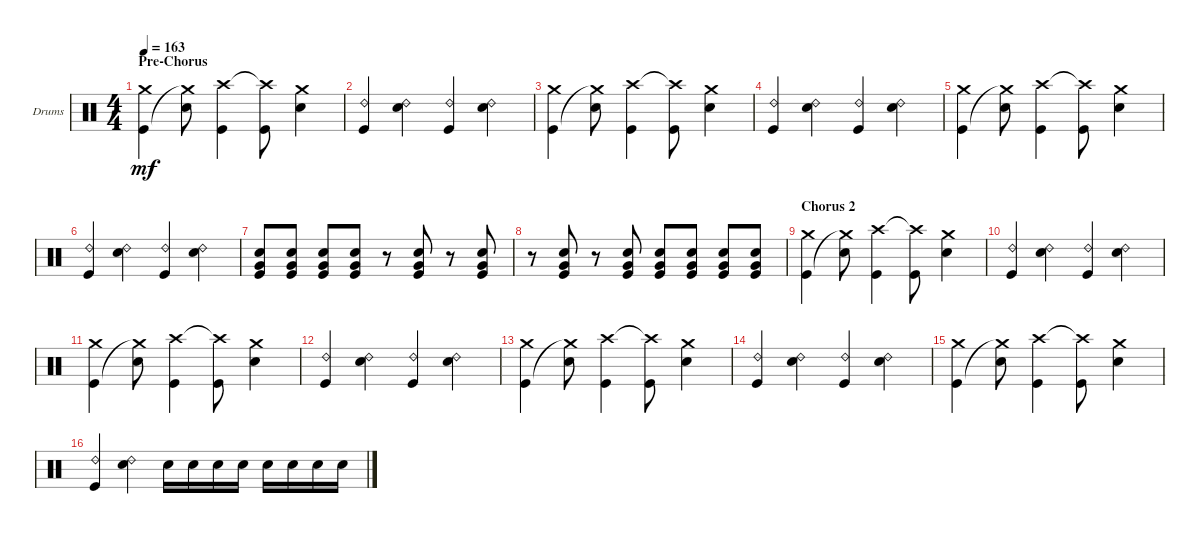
\bracketExtendMode groupsimilarinstruments
\firstSystemTrackNameOrientation horizontal
\otherSystemsTrackNameOrientation horizontal
\track ("Drums" "Drums") {instrument percussion}
\staff {score}
\articulation defaults
\ts (4 4)
\section ("" "Pre-Chorus")
\tempo 163
\clef neutral
\scale
0.333333
\ks c
("Crash medium (hit)" "Kick (hit)").4{dy mf} ("Snare (hit) 2" "Crash medium (hit)"{t}).8 ("Kick (hit)" "Crash high (hit)").4 ("Kick (hit)" "Crash high (hit)"{t}).8 ("Snare (hit) 2" "Crash medium (hit)").4 |
\scale
0.333333 ("Ride (bell) 2" "Kick (hit)").4 ("Ride (bell) 2" "Snare (hit) 2").4 ("Ride (bell) 2" "Kick (hit)").4 ("Ride (bell) 2" "Snare (hit) 2").4 |
\scale
0.333333 ("Crash medium (hit)" "Kick (hit)").4 ("Snare (hit) 2" "Crash medium (hit)"{t}).8 ("Kick (hit)" "Crash high (hit)").4 ("Kick (hit)" "Crash high (hit)"{t}).8 ("Snare (hit) 2" "Crash medium (hit)").4 |
\scale
0.333333 ("Ride (bell) 2" "Kick (hit)").4 ("Ride (bell) 2" "Snare (hit) 2").4 ("Ride (bell) 2" "Kick (hit)").4 ("Ride (bell) 2" "Snare (hit) 2").4 |
\scale
0.333333 ("Crash medium (hit)" "Kick (hit)").4 ("Snare (hit) 2" "Crash medium (hit)"{t}).8 ("Kick (hit)" "Crash high (hit)").4 ("Kick (hit)" "Crash high (hit)"{t}).8 ("Snare (hit) 2" "Crash medium (hit)").4 |
\scale
0.333333 ("Ride (bell) 2" "Kick (hit)").4 ("Ride (bell) 2" "Snare (hit) 2").4 ("Ride (bell) 2" "Kick (hit)").4 ("Ride (bell) 2" "Snare (hit) 2").4 |
\scale
0.333333 ("Kick (hit)" "Snare (hit) 2" "Very Low Tom (hit)").8 ("Kick (hit)" "Snare (hit) 2" "Very Low Tom (hit)").8 ("Kick (hit)" "Snare (hit) 2" "Very Low Tom (hit)").8 ("Kick (hit)" "Snare (hit) 2" "Very Low Tom (hit)").8 r.8 ("Kick (hit)" "Snare (hit) 2" "Very Low Tom (hit)").8 r.8 ("Kick (hit)" "Snare (hit) 2" "Very Low Tom (hit)").8 |
\scale
0.333333 r.8 ("Kick (hit)" "Snare (hit) 2" "Very Low Tom (hit)").8 r.8 ("Kick (hit)" "Snare (hit) 2" "Very Low Tom (hit)").8 ("Kick (hit)" "Snare (hit) 2" "Very Low Tom (hit)").8 ("Kick (hit)" "Snare (hit) 2" "Very Low Tom (hit)").8 ("Kick (hit)" "Snare (hit) 2" "Very Low Tom (hit)").8 ("Kick (hit)" "Snare (hit) 2" "Very Low Tom (hit)").8 |
\section ("" "Chorus 2")
\scale
0.333333 ("Crash medium (hit)" "Kick (hit)").4 ("Snare (hit) 2" "Crash medium (hit)"{t}).8 ("Kick (hit)" "Crash high (hit)").4 ("Kick (hit)" "Crash high (hit)"{t}).8 ("Snare (hit) 2" "Crash medium (hit)").4 |
\scale
0.333333 ("Ride (bell) 2" "Kick (hit)").4 ("Ride (bell) 2" "Snare (hit) 2").4 ("Ride (bell) 2" "Kick (hit)").4 ("Ride (bell) 2" "Snare (hit) 2").4 |
\scale
0.333333 ("Crash medium (hit)" "Kick (hit)").4 ("Snare (hit) 2" "Crash medium (hit)"{t}).8 ("Kick (hit)" "Crash high (hit)").4 ("Kick (hit)" "Crash high (hit)"{t}).8 ("Snare (hit) 2" "Crash medium (hit)").4 |
\scale
0.333333 ("Ride (bell) 2" "Kick (hit)").4 ("Ride (bell) 2" "Snare (hit) 2").4 ("Ride (bell) 2" "Kick (hit)").4 ("Ride (bell) 2" "Snare (hit) 2").4 |
\scale
0.333333 ("Crash medium (hit)" "Kick (hit)").4 ("Snare (hit) 2" "Crash medium (hit)"{t}).8 ("Kick (hit)" "Crash high (hit)").4 ("Kick (hit)" "Crash high (hit)"{t}).8 ("Snare (hit) 2" "Crash medium (hit)").4 |
\scale
0.333333 ("Ride (bell) 2" "Kick (hit)").4 ("Ride (bell) 2" "Snare (hit) 2").4 ("Ride (bell) 2" "Kick (hit)").4 ("Ride (bell) 2" "Snare (hit) 2").4 |
\scale
0.333333 ("Crash medium (hit)" "Kick (hit)").4 ("Snare (hit) 2" "Crash medium (hit)"{t}).8 ("Kick (hit)" "Crash high (hit)").4 ("Kick (hit)" "Crash high (hit)"{t}).8 ("Snare (hit) 2" "Crash medium (hit)").4 |
\scale
0.333333 ("Ride (bell) 2" "Kick (hit)").4 ("Ride (bell) 2" "Snare (hit) 2").4 "Snare (hit) 2".16 "Snare (hit) 2".16 "Snare (hit) 2".16 "Snare (hit) 2".16 "Snare (hit) 2".16 "Snare (hit) 2".16 "Snare (hit) 2".16 "Snare (hit) 2".16
